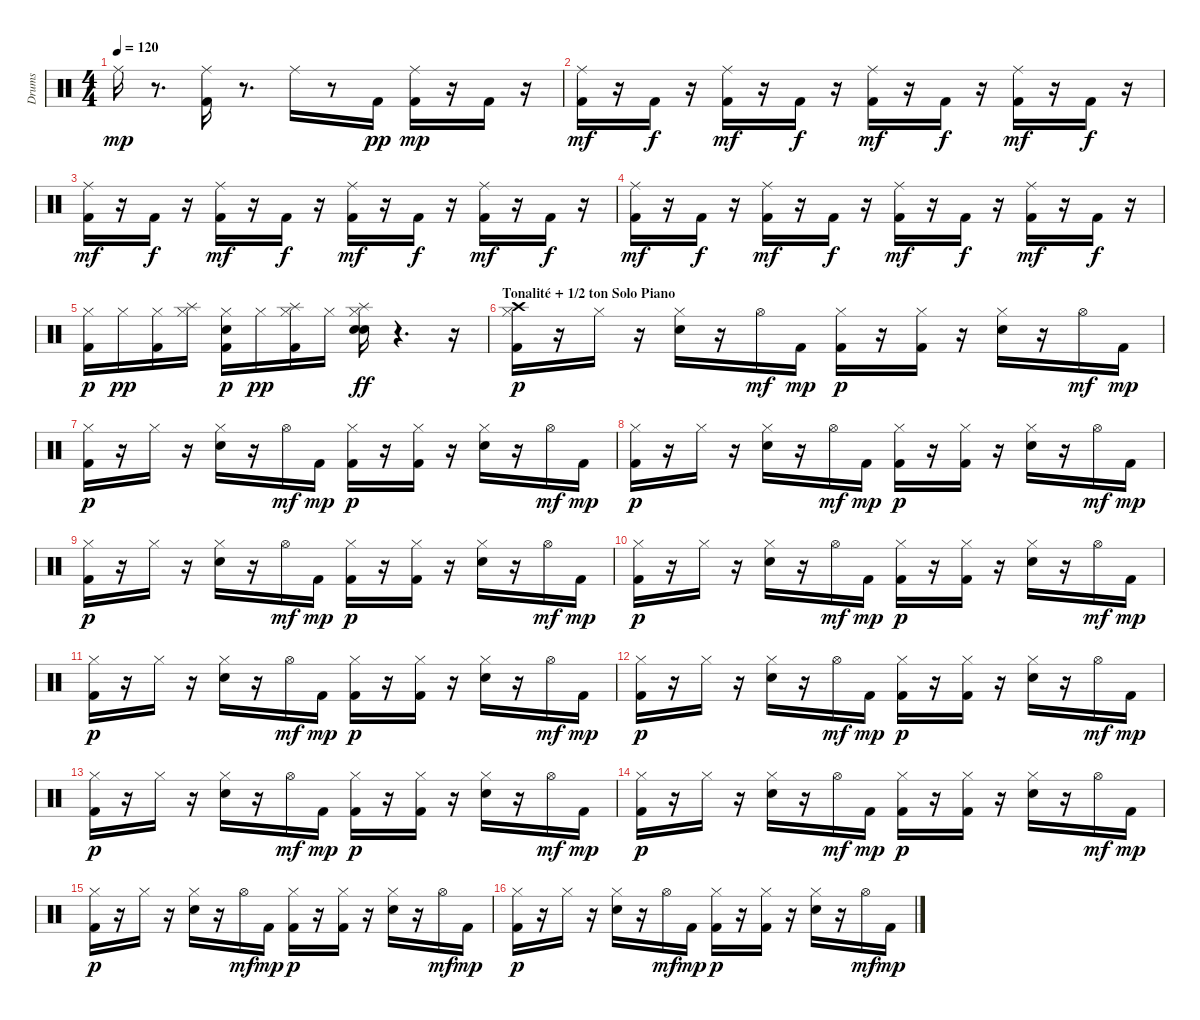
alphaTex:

\track ("Drums" "Drums") {instrument percussion}
\staff {score}
\articulation defaults
\ts (4 4)
\tempo 120
\clef neutral
\ks c "Ride (middle)".16{dy mp}
r.8{d} ("Kick (hit) 2" "Ride (middle)").16 r.8{d} "Ride (middle)".16 r.8 "Kick (hit) 2".16{dy pp} ("Kick (hit) 2" "Ride (middle)").16{dy mp} r.16 "Kick (hit) 2".16 r.16 |
("Kick (hit) 2" "Ride (middle)").16{dy mf} r.16 "Kick (hit) 2".16{dy f} r.16 ("Kick (hit) 2" "Ride (middle)").16{dy mf} r.16 "Kick (hit) 2".16{dy f} r.16 ("Kick (hit) 2" "Ride (middle)").16{dy mf} r.16 "Kick (hit) 2".16{dy f} r.16 ("Kick (hit) 2" "Ride (middle)").16{dy mf} r.16 "Kick (hit) 2".16{dy f} r.16 |
("Kick (hit) 2" "Ride (middle)").16{dy mf} r.16 "Kick (hit) 2".16{dy f} r.16 ("Kick (hit) 2" "Ride (middle)").16{dy mf} r.16 "Kick (hit) 2".16{dy f} r.16 ("Kick (hit) 2" "Ride (middle)").16{dy mf} r.16 "Kick (hit) 2".16{dy f} r.16 ("Kick (hit) 2" "Ride (middle)").16{dy mf} r.16 "Kick (hit) 2".16{dy f} r.16 |
("Kick (hit) 2" "Ride (middle)").16{dy mf} r.16 "Kick (hit) 2".16{dy f} r.16 ("Kick (hit) 2" "Ride (middle)").16{dy mf} r.16 "Kick (hit) 2".16{dy f} r.16 ("Kick (hit) 2" "Ride (middle)").16{dy mf} r.16 "Kick (hit) 2".16{dy f} r.16 ("Kick (hit) 2" "Ride (middle)").16{dy mf} r.16 "Kick (hit) 2".16{dy f} r.16 |
("Kick (hit) 2" "Hi-Hat (closed)").16{dy p} "Hi-Hat (closed)".16{dy pp} ("Kick (hit) 2" "Hi-Hat (closed)").16 ("Hi-Hat (closed)" "Splash (hit)").16 ("Kick (hit) 2" "Electric Snare (hit)" "Hi-Hat (closed)").16{dy p} "Hi-Hat (closed)".16{dy pp} ("Kick (hit) 2" "Hi-Hat (closed)" "Splash (hit)").16 "Hi-Hat (closed)".16 ("Electric Snare (hit)" "Hi-Hat (closed)" "Electric Snare (hit)" "Splash (hit)").16{dy ff} r.4{d} r.16 |
\section ("" "Tonalité + 1/2 ton Solo Piano")
("Kick (hit) 2" "Hi-Hat (closed)" "Crash high (hit)").16{dy p} r.16 "Hi-Hat (closed)".16 r.16 ("Electric Snare (hit)" "Hi-Hat (closed)").16 r.16 "Hi-Hat (open)".16{dy mf} "Kick (hit) 2".16{dy mp} ("Kick (hit) 2" "Hi-Hat (closed)").16{dy p} r.16 ("Kick (hit) 2" "Hi-Hat (closed)").16 r.16 ("Electric Snare (hit)" "Hi-Hat (closed)").16 r.16 "Hi-Hat (open)".16{dy mf} "Kick (hit) 2".16{dy mp} |
("Kick (hit) 2" "Hi-Hat (closed)").16{dy p} r.16 "Hi-Hat (closed)".16 r.16 ("Electric Snare (hit)" "Hi-Hat (closed)").16 r.16 "Hi-Hat (open)".16{dy mf} "Kick (hit) 2".16{dy mp} ("Kick (hit) 2" "Hi-Hat (closed)").16{dy p} r.16 ("Kick (hit) 2" "Hi-Hat (closed)").16 r.16 ("Electric Snare (hit)" "Hi-Hat (closed)").16 r.16 "Hi-Hat (open)".16{dy mf} "Kick (hit) 2".16{dy mp} |
("Kick (hit) 2" "Hi-Hat (closed)").16{dy p} r.16 "Hi-Hat (closed)".16 r.16 ("Electric Snare (hit)" "Hi-Hat (closed)").16 r.16 "Hi-Hat (open)".16{dy mf} "Kick (hit) 2".16{dy mp} ("Kick (hit) 2" "Hi-Hat (closed)").16{dy p} r.16 ("Kick (hit) 2" "Hi-Hat (closed)").16 r.16 ("Electric Snare (hit)" "Hi-Hat (closed)").16 r.16 "Hi-Hat (open)".16{dy mf} "Kick (hit) 2".16{dy mp} |
("Kick (hit) 2" "Hi-Hat (closed)").16{dy p} r.16 "Hi-Hat (closed)".16 r.16 ("Electric Snare (hit)" "Hi-Hat (closed)").16 r.16 "Hi-Hat (open)".16{dy mf} "Kick (hit) 2".16{dy mp} ("Kick (hit) 2" "Hi-Hat (closed)").16{dy p} r.16 ("Kick (hit) 2" "Hi-Hat (closed)").16 r.16 ("Electric Snare (hit)" "Hi-Hat (closed)").16 r.16 "Hi-Hat (open)".16{dy mf} "Kick (hit) 2".16{dy mp} |
("Kick (hit) 2" "Hi-Hat (closed)").16{dy p} r.16 "Hi-Hat (closed)".16 r.16 ("Electric Snare (hit)" "Hi-Hat (closed)").16 r.16 "Hi-Hat (open)".16{dy mf} "Kick (hit) 2".16{dy mp} ("Kick (hit) 2" "Hi-Hat (closed)").16{dy p} r.16 ("Kick (hit) 2" "Hi-Hat (closed)").16 r.16 ("Electric Snare (hit)" "Hi-Hat (closed)").16 r.16 "Hi-Hat (open)".16{dy mf} "Kick (hit) 2".16{dy mp} |
("Kick (hit) 2" "Hi-Hat (closed)").16{dy p} r.16 "Hi-Hat (closed)".16 r.16 ("Electric Snare (hit)" "Hi-Hat (closed)").16 r.16 "Hi-Hat (open)".16{dy mf} "Kick (hit) 2".16{dy mp} ("Kick (hit) 2" "Hi-Hat (closed)").16{dy p} r.16 ("Kick (hit) 2" "Hi-Hat (closed)").16 r.16 ("Electric Snare (hit)" "Hi-Hat (closed)").16 r.16 "Hi-Hat (open)".16{dy mf} "Kick (hit) 2".16{dy mp} |
("Kick (hit) 2" "Hi-Hat (closed)").16{dy p} r.16 "Hi-Hat (closed)".16 r.16 ("Electric Snare (hit)" "Hi-Hat (closed)").16 r.16 "Hi-Hat (open)".16{dy mf} "Kick (hit) 2".16{dy mp} ("Kick (hit) 2" "Hi-Hat (closed)").16{dy p} r.16 ("Kick (hit) 2" "Hi-Hat (closed)").16 r.16 ("Electric Snare (hit)" "Hi-Hat (closed)").16 r.16 "Hi-Hat (open)".16{dy mf} "Kick (hit) 2".16{dy mp} |
("Kick (hit) 2" "Hi-Hat (closed)").16{dy p} r.16 "Hi-Hat (closed)".16 r.16 ("Electric Snare (hit)" "Hi-Hat (closed)").16 r.16 "Hi-Hat (open)".16{dy mf} "Kick (hit) 2".16{dy mp} ("Kick (hit) 2" "Hi-Hat (closed)").16{dy p} r.16 ("Kick (hit) 2" "Hi-Hat (closed)").16 r.16 ("Electric Snare (hit)" "Hi-Hat (closed)").16 r.16 "Hi-Hat (open)".16{dy mf} "Kick (hit) 2".16{dy mp} |
("Kick (hit) 2" "Hi-Hat (closed)").16{dy p} r.16 "Hi-Hat (closed)".16 r.16 ("Electric Snare (hit)" "Hi-Hat (closed)").16 r.16 "Hi-Hat (open)".16{dy mf} "Kick (hit) 2".16{dy mp} ("Kick (hit) 2" "Hi-Hat (closed)").16{dy p} r.16 ("Kick (hit) 2" "Hi-Hat (closed)").16 r.16 ("Electric Snare (hit)" "Hi-Hat (closed)").16 r.16 "Hi-Hat (open)".16{dy mf} "Kick (hit) 2".16{dy mp} |
("Kick (hit) 2" "Hi-Hat (closed)").16{dy p} r.16 "Hi-Hat (closed)".16 r.16 ("Electric Snare (hit)" "Hi-Hat (closed)").16 r.16 "Hi-Hat (open)".16{dy mf} "Kick (hit) 2".16{dy mp} ("Kick (hit) 2" "Hi-Hat (closed)").16{dy p} r.16 ("Kick (hit) 2" "Hi-Hat (closed)").16 r.16 ("Electric Snare (hit)" "Hi-Hat (closed)").16 r.16 "Hi-Hat (open)".16{dy mf} "Kick (hit) 2".16{dy mp} |
("Kick (hit) 2" "Hi-Hat (closed)").16{dy p} r.16 "Hi-Hat (closed)".16 r.16 ("Electric Snare (hit)" "Hi-Hat (closed)").16 r.16 "Hi-Hat (open)".16{dy mf} "Kick (hit) 2".16{dy mp} ("Kick (hit) 2" "Hi-Hat (closed)").16{dy p} r.16 ("Kick (hit) 2" "Hi-Hat (closed)").16 r.16 ("Electric Snare (hit)" "Hi-Hat (closed)").16 r.16 "Hi-Hat (open)".16{dy mf} "Kick (hit) 2".16{dy mp}
